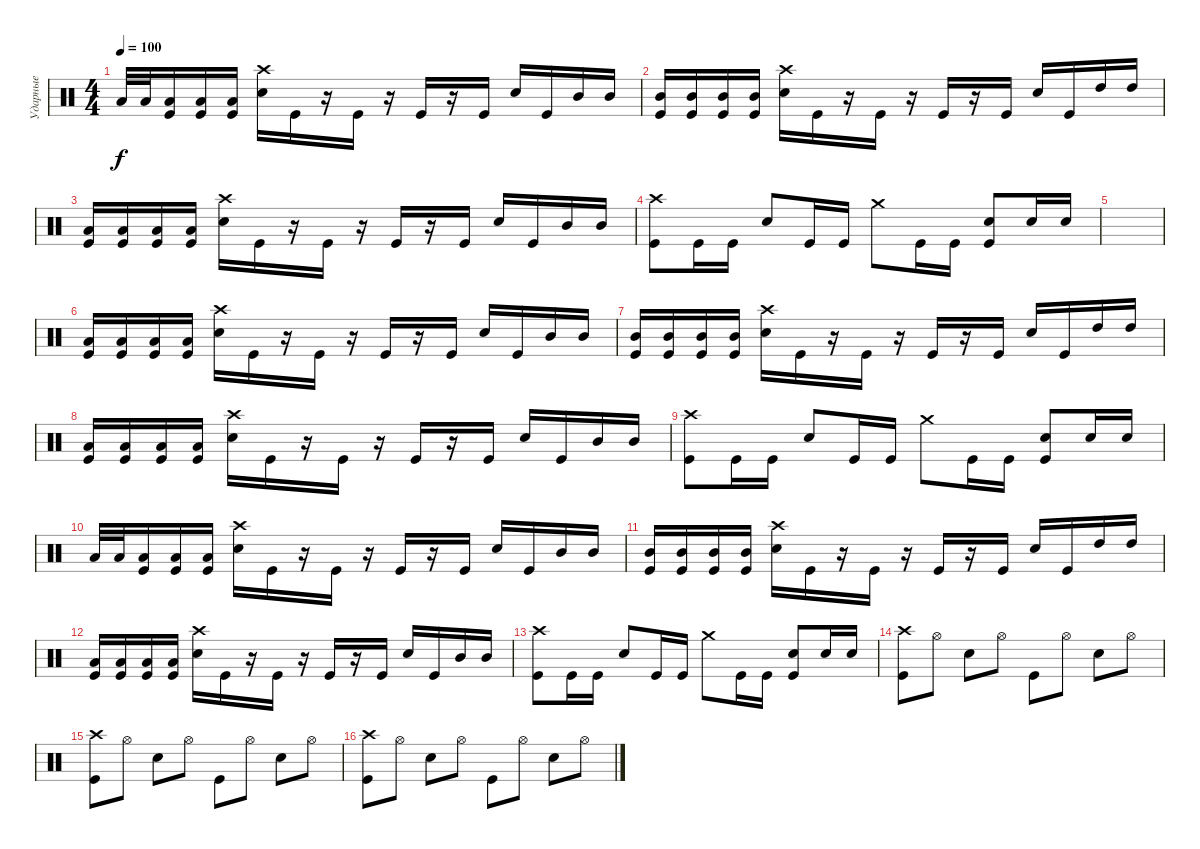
\track ("Ударные" "Ударные") {instrument percussion}
\staff {score}
\articulation defaults
\ts (4 4)
\tempo 100
\clef neutral
\ks c "Low Tom (hit)".32{dy f} "Low Tom (hit)".32
("Low Tom (hit)" "Kick (hit)").16 ("Low Tom (hit)" "Kick (hit)").16 ("Low Tom (hit)" "Kick (hit)").16 ("Crash high (hit)" "Electric Snare (hit)").16 "Kick (hit)".16 r.16 "Kick (hit)".16 r.16 "Kick (hit)".16 r.16 "Kick (hit)".16 "Electric Snare (hit)".16 "Kick (hit)".16 "Mid Tom (hit)".16 "Mid Tom (hit)".16 |
("Mid Tom (hit)" "Kick (hit)").16 ("Mid Tom (hit)" "Kick (hit)").16 ("Mid Tom (hit)" "Kick (hit)").16 ("Mid Tom (hit)" "Kick (hit)").16 ("Crash high (hit)" "Electric Snare (hit)").16 "Kick (hit)".16 r.16 "Kick (hit)".16 r.16 "Kick (hit)".16 r.16 "Kick (hit)".16 "Electric Snare (hit)".16 "Kick (hit)".16 "High Tom (hit)".16 "High Tom (hit)".16 |
("Low Tom (hit)" "Kick (hit)").16 ("Low Tom (hit)" "Kick (hit)").16 ("Low Tom (hit)" "Kick (hit)").16 ("Low Tom (hit)" "Kick (hit)").16 ("Crash high (hit)" "Electric Snare (hit)").16 "Kick (hit)".16 r.16 "Kick (hit)".16 r.16 "Kick (hit)".16 r.16 "Kick (hit)".16 "Electric Snare (hit)".16 "Kick (hit)".16 "Mid Tom (hit)".16 "Mid Tom (hit)".16 |
("Crash high (hit)" "Kick (hit)").8 "Kick (hit)".16 "Kick (hit)".16 "Electric Snare (hit)".8 "Kick (hit)".16 "Kick (hit)".16 "Crash medium (hit)".8 "Kick (hit)".16 "Kick (hit)".16 ("Electric Snare (hit)" "Kick (hit)").8 "Electric Snare (hit)".16 "Electric Snare (hit)".16 |
|
("Low Tom (hit)" "Kick (hit)").16 ("Low Tom (hit)" "Kick (hit)").16 ("Low Tom (hit)" "Kick (hit)").16 ("Low Tom (hit)" "Kick (hit)").16 ("Crash high (hit)" "Electric Snare (hit)").16 "Kick (hit)".16 r.16 "Kick (hit)".16 r.16 "Kick (hit)".16 r.16 "Kick (hit)".16 "Electric Snare (hit)".16 "Kick (hit)".16 "Mid Tom (hit)".16 "Mid Tom (hit)".16 |
("Mid Tom (hit)" "Kick (hit)").16 ("Mid Tom (hit)" "Kick (hit)").16 ("Mid Tom (hit)" "Kick (hit)").16 ("Mid Tom (hit)" "Kick (hit)").16 ("Crash high (hit)" "Electric Snare (hit)").16 "Kick (hit)".16 r.16 "Kick (hit)".16 r.16 "Kick (hit)".16 r.16 "Kick (hit)".16 "Electric Snare (hit)".16 "Kick (hit)".16 "High Tom (hit)".16 "High Tom (hit)".16 |
("Low Tom (hit)" "Kick (hit)").16 ("Low Tom (hit)" "Kick (hit)").16 ("Low Tom (hit)" "Kick (hit)").16 ("Low Tom (hit)" "Kick (hit)").16 ("Crash high (hit)" "Electric Snare (hit)").16 "Kick (hit)".16 r.16 "Kick (hit)".16 r.16 "Kick (hit)".16 r.16 "Kick (hit)".16 "Electric Snare (hit)".16 "Kick (hit)".16 "Mid Tom (hit)".16 "Mid Tom (hit)".16 |
("Crash high (hit)" "Kick (hit)").8 "Kick (hit)".16 "Kick (hit)".16 "Electric Snare (hit)".8 "Kick (hit)".16 "Kick (hit)".16 "Crash medium (hit)".8 "Kick (hit)".16 "Kick (hit)".16 ("Electric Snare (hit)" "Kick (hit)").8 "Electric Snare (hit)".16 "Electric Snare (hit)".16 |
"Low Tom (hit)".32 "Low Tom (hit)".32 ("Low Tom (hit)" "Kick (hit)").16 ("Low Tom (hit)" "Kick (hit)").16 ("Low Tom (hit)" "Kick (hit)").16 ("Crash high (hit)" "Electric Snare (hit)").16 "Kick (hit)".16 r.16 "Kick (hit)".16 r.16 "Kick (hit)".16 r.16 "Kick (hit)".16 "Electric Snare (hit)".16 "Kick (hit)".16 "Mid Tom (hit)".16 "Mid Tom (hit)".16 |
("Mid Tom (hit)" "Kick (hit)").16 ("Mid Tom (hit)" "Kick (hit)").16 ("Mid Tom (hit)" "Kick (hit)").16 ("Mid Tom (hit)" "Kick (hit)").16 ("Crash high (hit)" "Electric Snare (hit)").16 "Kick (hit)".16 r.16 "Kick (hit)".16 r.16 "Kick (hit)".16 r.16 "Kick (hit)".16 "Electric Snare (hit)".16 "Kick (hit)".16 "High Tom (hit)".16 "High Tom (hit)".16 |
("Low Tom (hit)" "Kick (hit)").16 ("Low Tom (hit)" "Kick (hit)").16 ("Low Tom (hit)" "Kick (hit)").16 ("Low Tom (hit)" "Kick (hit)").16 ("Crash high (hit)" "Electric Snare (hit)").16 "Kick (hit)".16 r.16 "Kick (hit)".16 r.16 "Kick (hit)".16 r.16 "Kick (hit)".16 "Electric Snare (hit)".16 "Kick (hit)".16 "Mid Tom (hit)".16 "Mid Tom (hit)".16 |
("Crash high (hit)" "Kick (hit)").8 "Kick (hit)".16 "Kick (hit)".16 "Electric Snare (hit)".8 "Kick (hit)".16 "Kick (hit)".16 "Crash medium (hit)".8 "Kick (hit)".16 "Kick (hit)".16 ("Electric Snare (hit)" "Kick (hit)").8 "Electric Snare (hit)".16 "Electric Snare (hit)".16 |
("Crash high (hit)" "Kick (hit)").8 "Hi-Hat (open)".8 "Electric Snare (hit)".8 "Hi-Hat (open)".8 "Kick (hit)".8 "Hi-Hat (open)".8 "Electric Snare (hit)".8 "Hi-Hat (open)".8 |
("Crash high (hit)" "Kick (hit)").8 "Hi-Hat (open)".8 "Electric Snare (hit)".8 "Hi-Hat (open)".8 "Kick (hit)".8 "Hi-Hat (open)".8 "Electric Snare (hit)".8 "Hi-Hat (open)".8 |
("Crash high (hit)" "Kick (hit)").8 "Hi-Hat (open)".8 "Electric Snare (hit)".8 "Hi-Hat (open)".8 "Kick (hit)".8 "Hi-Hat (open)".8 "Electric Snare (hit)".8 "Hi-Hat (open)".8
